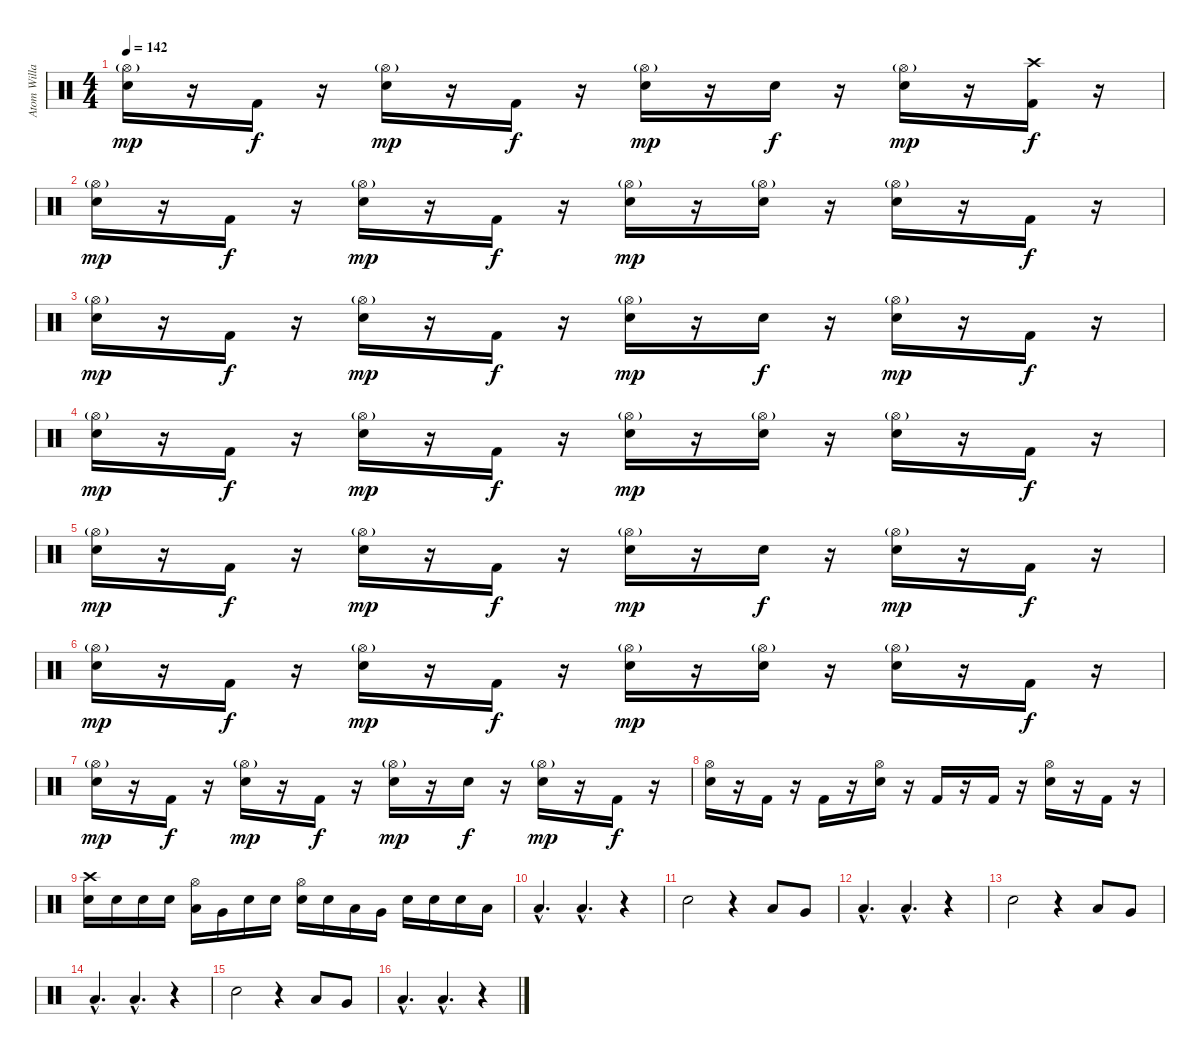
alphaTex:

\track ("Atom Willard" "Atom Willa") {instrument percussion}
\staff {score}
\articulation defaults
\ts (4 4)
\tempo 142
\clef neutral
\ks c
("Hi-Hat (open)"{g} "Electric Snare (hit)").16{dy mp} r.16 "Kick (hit) 2".16{dy f} r.16 ("Hi-Hat (open)"{g} "Electric Snare (hit)").16{dy mp} r.16 "Kick (hit) 2".16{dy f} r.16 ("Hi-Hat (open)"{g} "Electric Snare (hit)").16{dy mp} r.16 "Electric Snare (hit)".16{dy f} r.16 ("Hi-Hat (open)"{g} "Electric Snare (hit)").16{dy mp} r.16 ("Crash high (hit)" "Kick (hit) 2").16{dy f} r.16 |
("Hi-Hat (open)"{g} "Electric Snare (hit)").16{dy mp} r.16 "Kick (hit) 2".16{dy f} r.16 ("Hi-Hat (open)"{g} "Electric Snare (hit)").16{dy mp} r.16 "Kick (hit) 2".16{dy f} r.16 ("Hi-Hat (open)"{g} "Electric Snare (hit)").16{dy mp} r.16 ("Hi-Hat (open)"{g} "Electric Snare (hit)").16 r.16 ("Hi-Hat (open)"{g} "Electric Snare (hit)").16 r.16 "Kick (hit) 2".16{dy f} r.16 |
("Hi-Hat (open)"{g} "Electric Snare (hit)").16{dy mp} r.16 "Kick (hit) 2".16{dy f} r.16 ("Hi-Hat (open)"{g} "Electric Snare (hit)").16{dy mp} r.16 "Kick (hit) 2".16{dy f} r.16 ("Hi-Hat (open)"{g} "Electric Snare (hit)").16{dy mp} r.16 "Electric Snare (hit)".16{dy f} r.16 ("Hi-Hat (open)"{g} "Electric Snare (hit)").16{dy mp} r.16 "Kick (hit) 2".16{dy f} r.16 |
("Hi-Hat (open)"{g} "Electric Snare (hit)").16{dy mp} r.16 "Kick (hit) 2".16{dy f} r.16 ("Hi-Hat (open)"{g} "Electric Snare (hit)").16{dy mp} r.16 "Kick (hit) 2".16{dy f} r.16 ("Hi-Hat (open)"{g} "Electric Snare (hit)").16{dy mp} r.16 ("Hi-Hat (open)"{g} "Electric Snare (hit)").16 r.16 ("Hi-Hat (open)"{g} "Electric Snare (hit)").16 r.16 "Kick (hit) 2".16{dy f} r.16 |
("Hi-Hat (open)"{g} "Electric Snare (hit)").16{dy mp} r.16 "Kick (hit) 2".16{dy f} r.16 ("Hi-Hat (open)"{g} "Electric Snare (hit)").16{dy mp} r.16 "Kick (hit) 2".16{dy f} r.16 ("Hi-Hat (open)"{g} "Electric Snare (hit)").16{dy mp} r.16 "Electric Snare (hit)".16{dy f} r.16 ("Hi-Hat (open)"{g} "Electric Snare (hit)").16{dy mp} r.16 "Kick (hit) 2".16{dy f} r.16 |
("Hi-Hat (open)"{g} "Electric Snare (hit)").16{dy mp} r.16 "Kick (hit) 2".16{dy f} r.16 ("Hi-Hat (open)"{g} "Electric Snare (hit)").16{dy mp} r.16 "Kick (hit) 2".16{dy f} r.16 ("Hi-Hat (open)"{g} "Electric Snare (hit)").16{dy mp} r.16 ("Hi-Hat (open)"{g} "Electric Snare (hit)").16 r.16 ("Hi-Hat (open)"{g} "Electric Snare (hit)").16 r.16 "Kick (hit) 2".16{dy f} r.16 |
("Hi-Hat (open)"{g} "Electric Snare (hit)").16{dy mp} r.16 "Kick (hit) 2".16{dy f} r.16 ("Hi-Hat (open)"{g} "Electric Snare (hit)").16{dy mp} r.16 "Kick (hit) 2".16{dy f} r.16 ("Hi-Hat (open)"{g} "Electric Snare (hit)").16{dy mp} r.16 "Electric Snare (hit)".16{dy f} r.16 ("Hi-Hat (open)"{g} "Electric Snare (hit)").16{dy mp} r.16 "Kick (hit) 2".16{dy f} r.16 |
("Hi-Hat (open)" "Electric Snare (hit)").16 r.16 "Kick (hit) 2".16 r.16 "Kick (hit) 2".16 r.16 ("Hi-Hat (open)" "Electric Snare (hit)").16 r.16 "Kick (hit) 2".16 r.16 "Kick (hit) 2".16 r.16 ("Hi-Hat (open)" "Electric Snare (hit)").16 r.16 "Kick (hit) 2".16 r.16 |
("Crash high (hit)" "Electric Snare (hit)").16 "Electric Snare (hit)".16 "Electric Snare (hit)".16 "Electric Snare (hit)".16 ("Hi-Hat (open)" "Low Tom (hit)").16 "Very Low Tom (hit)".16 "Electric Snare (hit)".16 "Electric Snare (hit)".16 ("Hi-Hat (open)" "Electric Snare (hit)").16 "Electric Snare (hit)".16 "Low Tom (hit)".16 "Very Low Tom (hit)".16 "Electric Snare (hit)".16 "Electric Snare (hit)".16 "Electric Snare (hit)".16 "Low Tom (hit)".16 |
"Low Tom (hit)"{hac}.4{d} "Low Tom (hit)"{hac}.4{d} r.4 |
"Electric Snare (hit)".2 r.4 "Low Tom (hit)".8 "Very Low Tom (hit)".8 |
"Low Tom (hit)"{hac}.4{d} "Low Tom (hit)"{hac}.4{d} r.4 |
"Electric Snare (hit)".2 r.4 "Low Tom (hit)".8 "Very Low Tom (hit)".8 |
"Low Tom (hit)"{hac}.4{d} "Low Tom (hit)"{hac}.4{d} r.4 |
"Electric Snare (hit)".2 r.4 "Low Tom (hit)".8 "Very Low Tom (hit)".8 |
"Low Tom (hit)"{hac}.4{d} "Low Tom (hit)"{hac}.4{d} r.4
